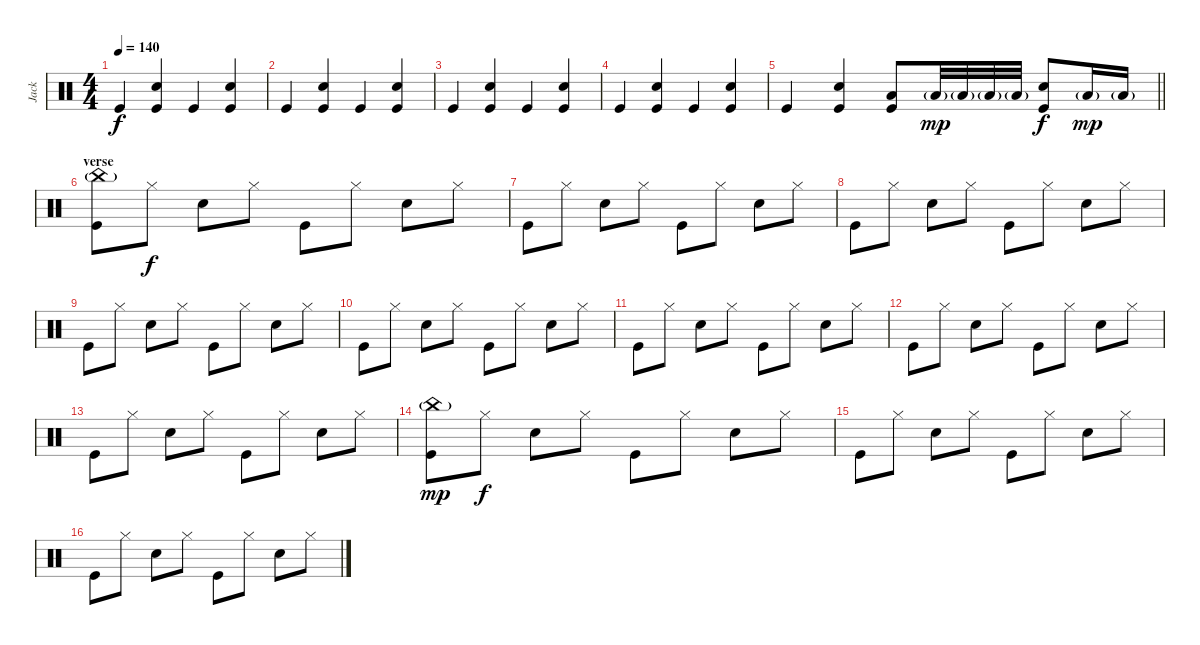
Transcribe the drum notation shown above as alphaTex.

\track ("Jack" "Jack") {instrument percussion}
\staff {score}
\articulation defaults
\ts (4 4)
\tempo 140
\clef neutral
\ks c "Kick (hit)".4{dy f}
("Snare (hit) 2" "Kick (hit)").4 "Kick (hit)".4 ("Snare (hit) 2" "Kick (hit)").4 |
"Kick (hit)".4 ("Snare (hit) 2" "Kick (hit)").4 "Kick (hit)".4 ("Snare (hit) 2" "Kick (hit)").4 |
"Kick (hit)".4 ("Snare (hit) 2" "Kick (hit)").4 "Kick (hit)".4 ("Snare (hit) 2" "Kick (hit)").4 |
"Kick (hit)".4 ("Snare (hit) 2" "Kick (hit)").4 "Kick (hit)".4 ("Snare (hit) 2" "Kick (hit)").4 |
\barLineRight lightlight "Kick (hit)".4
("Snare (hit) 2" "Kick (hit)").4 ("Low Floor Tom (hit)" "Kick (hit)").8 "Low Floor Tom (hit)"{g}.32{dy mp} "Low Floor Tom (hit)"{g}.32 "Low Floor Tom (hit)"{g}.32 "Low Floor Tom (hit)"{g}.32 ("Snare (hit) 2" "Kick (hit)").8{dy f} "Low Floor Tom (hit)"{g}.16{dy mp} "Low Floor Tom (hit)"{g}.16 |
\section ("" "verse")
("China (hit)"{g} "Kick (hit)").8 "Hi-Hat (closed)".8{dy f} "Snare (hit) 2".8 "Hi-Hat (closed)".8 "Kick (hit)".8 "Hi-Hat (closed)".8 "Snare (hit) 2".8 "Hi-Hat (closed)".8 |
"Kick (hit)".8 "Hi-Hat (closed)".8 "Snare (hit) 2".8 "Hi-Hat (closed)".8 "Kick (hit)".8 "Hi-Hat (closed)".8 "Snare (hit) 2".8 "Hi-Hat (closed)".8 |
"Kick (hit)".8 "Hi-Hat (closed)".8 "Snare (hit) 2".8 "Hi-Hat (closed)".8 "Kick (hit)".8 "Hi-Hat (closed)".8 "Snare (hit) 2".8 "Hi-Hat (closed)".8 |
"Kick (hit)".8 "Hi-Hat (closed)".8 "Snare (hit) 2".8 "Hi-Hat (closed)".8 "Kick (hit)".8 "Hi-Hat (closed)".8 "Snare (hit) 2".8 "Hi-Hat (closed)".8 |
"Kick (hit)".8 "Hi-Hat (closed)".8 "Snare (hit) 2".8 "Hi-Hat (closed)".8 "Kick (hit)".8 "Hi-Hat (closed)".8 "Snare (hit) 2".8 "Hi-Hat (closed)".8 |
"Kick (hit)".8 "Hi-Hat (closed)".8 "Snare (hit) 2".8 "Hi-Hat (closed)".8 "Kick (hit)".8 "Hi-Hat (closed)".8 "Snare (hit) 2".8 "Hi-Hat (closed)".8 |
"Kick (hit)".8 "Hi-Hat (closed)".8 "Snare (hit) 2".8 "Hi-Hat (closed)".8 "Kick (hit)".8 "Hi-Hat (closed)".8 "Snare (hit) 2".8 "Hi-Hat (closed)".8 |
"Kick (hit)".8 "Hi-Hat (closed)".8 "Snare (hit) 2".8 "Hi-Hat (closed)".8 "Kick (hit)".8 "Hi-Hat (closed)".8 "Snare (hit) 2".8 "Hi-Hat (closed)".8 |
("China (hit)"{g} "Kick (hit)").8{dy mp} "Hi-Hat (closed)".8{dy f} "Snare (hit) 2".8 "Hi-Hat (closed)".8 "Kick (hit)".8 "Hi-Hat (closed)".8 "Snare (hit) 2".8 "Hi-Hat (closed)".8 |
"Kick (hit)".8 "Hi-Hat (closed)".8 "Snare (hit) 2".8 "Hi-Hat (closed)".8 "Kick (hit)".8 "Hi-Hat (closed)".8 "Snare (hit) 2".8 "Hi-Hat (closed)".8 |
"Kick (hit)".8 "Hi-Hat (closed)".8 "Snare (hit) 2".8 "Hi-Hat (closed)".8 "Kick (hit)".8 "Hi-Hat (closed)".8 "Snare (hit) 2".8 "Hi-Hat (closed)".8
